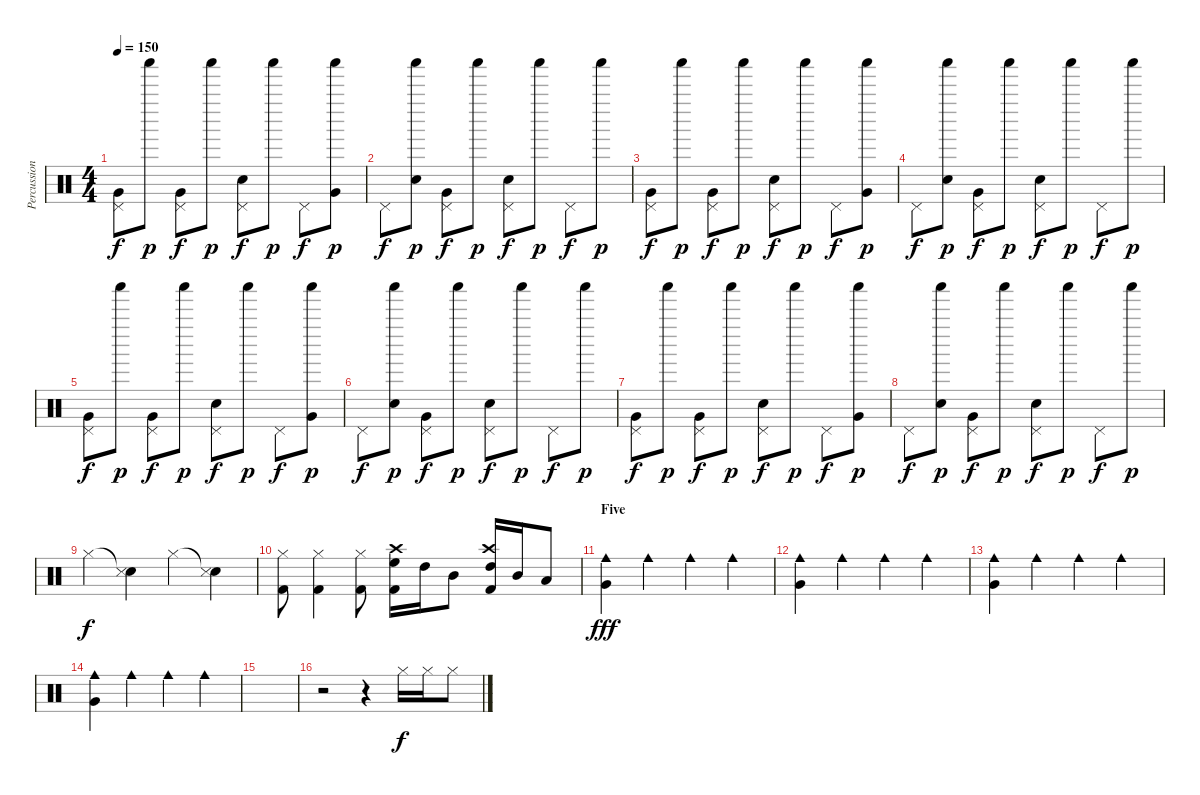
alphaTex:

\track ("Percussion" "Percussion") {instrument percussion}
\staff {score}
\articulation defaults
\ts (4 4)
\tempo 150
\clef neutral
\ks c
("Very Low Tom (hit)" "Pedal Hi-Hat (hit)").8{dy f} "Shaker (hit)".8{dy p} ("Very Low Tom (hit)" "Pedal Hi-Hat (hit)").8{dy f} "Shaker (hit)".8{dy p} ("Snare (hit) 2" "Pedal Hi-Hat (hit)").8{dy f} "Shaker (hit)".8{dy p} "Pedal Hi-Hat (hit)".8{dy f} ("Very Low Tom (hit)" "Shaker (hit)").8{dy p} |
"Pedal Hi-Hat (hit)".8{dy f} ("Snare (hit) 2" "Shaker (hit)").8{dy p} ("Very Low Tom (hit)" "Pedal Hi-Hat (hit)").8{dy f} "Shaker (hit)".8{dy p} ("Snare (hit) 2" "Pedal Hi-Hat (hit)").8{dy f} "Shaker (hit)".8{dy p} "Pedal Hi-Hat (hit)".8{dy f} "Shaker (hit)".8{dy p} |
("Very Low Tom (hit)" "Pedal Hi-Hat (hit)").8{dy f} "Shaker (hit)".8{dy p} ("Very Low Tom (hit)" "Pedal Hi-Hat (hit)").8{dy f} "Shaker (hit)".8{dy p} ("Snare (hit) 2" "Pedal Hi-Hat (hit)").8{dy f} "Shaker (hit)".8{dy p} "Pedal Hi-Hat (hit)".8{dy f} ("Very Low Tom (hit)" "Shaker (hit)").8{dy p} |
"Pedal Hi-Hat (hit)".8{dy f} ("Snare (hit) 2" "Shaker (hit)").8{dy p} ("Very Low Tom (hit)" "Pedal Hi-Hat (hit)").8{dy f} "Shaker (hit)".8{dy p} ("Snare (hit) 2" "Pedal Hi-Hat (hit)").8{dy f} "Shaker (hit)".8{dy p} "Pedal Hi-Hat (hit)".8{dy f} "Shaker (hit)".8{dy p} |
("Very Low Tom (hit)" "Pedal Hi-Hat (hit)").8{dy f} "Shaker (hit)".8{dy p} ("Very Low Tom (hit)" "Pedal Hi-Hat (hit)").8{dy f} "Shaker (hit)".8{dy p} ("Snare (hit) 2" "Pedal Hi-Hat (hit)").8{dy f} "Shaker (hit)".8{dy p} "Pedal Hi-Hat (hit)".8{dy f} ("Very Low Tom (hit)" "Shaker (hit)").8{dy p} |
"Pedal Hi-Hat (hit)".8{dy f} ("Snare (hit) 2" "Shaker (hit)").8{dy p} ("Very Low Tom (hit)" "Pedal Hi-Hat (hit)").8{dy f} "Shaker (hit)".8{dy p} ("Snare (hit) 2" "Pedal Hi-Hat (hit)").8{dy f} "Shaker (hit)".8{dy p} "Pedal Hi-Hat (hit)".8{dy f} "Shaker (hit)".8{dy p} |
("Very Low Tom (hit)" "Pedal Hi-Hat (hit)").8{dy f} "Shaker (hit)".8{dy p} ("Very Low Tom (hit)" "Pedal Hi-Hat (hit)").8{dy f} "Shaker (hit)".8{dy p} ("Snare (hit) 2" "Pedal Hi-Hat (hit)").8{dy f} "Shaker (hit)".8{dy p} "Pedal Hi-Hat (hit)".8{dy f} ("Very Low Tom (hit)" "Shaker (hit)").8{dy p} |
"Pedal Hi-Hat (hit)".8{dy f} ("Snare (hit) 2" "Shaker (hit)").8{dy p} ("Very Low Tom (hit)" "Pedal Hi-Hat (hit)").8{dy f} "Shaker (hit)".8{dy p} ("Snare (hit) 2" "Pedal Hi-Hat (hit)").8{dy f} "Shaker (hit)".8{dy p} "Pedal Hi-Hat (hit)".8{dy f} "Shaker (hit)".8{dy p} |
"Hi-Hat (closed)".4{dy f} ("Snare (hit)"{t} "Metronome (hit)").4 "Hi-Hat (closed)".4 ("Snare (hit)"{t} "Metronome (hit)").4 |
("Hi-Hat (closed)" "Kick (hit) 2").8 ("Hi-Hat (closed)" "Kick (hit) 2").4 ("Hi-Hat (closed)" "Kick (hit) 2").8 ("Crash high (hit)" "High Floor Tom (hit)" "Kick (hit) 2").16 "High Tom (hit)".16 "Mid Tom (hit)".8 ("Crash high (hit)" "High Tom (hit)" "Kick (hit) 2").16 "Mid Tom (hit)".16 "Low Tom (hit)".8 |
\section ("" "Five")
("Very Low Tom (hit)" "Cowbell medium (hit)").4{dy fff} "Cowbell medium (hit)".4 "Cowbell medium (hit)".4 "Cowbell medium (hit)".4 |
("Very Low Tom (hit)" "Cowbell medium (hit)").4 "Cowbell medium (hit)".4 "Cowbell medium (hit)".4 "Cowbell medium (hit)".4 |
("Very Low Tom (hit)" "Cowbell medium (hit)").4 "Cowbell medium (hit)".4 "Cowbell medium (hit)".4 "Cowbell medium (hit)".4 |
("Very Low Tom (hit)" "Cowbell medium (hit)").4 "Cowbell medium (hit)".4 "Cowbell medium (hit)".4 "Cowbell medium (hit)".4 |
|
r.2 r.4 "Hi-Hat (closed)".16{dy f} "Hi-Hat (closed)".16 "Hi-Hat (closed)".8
